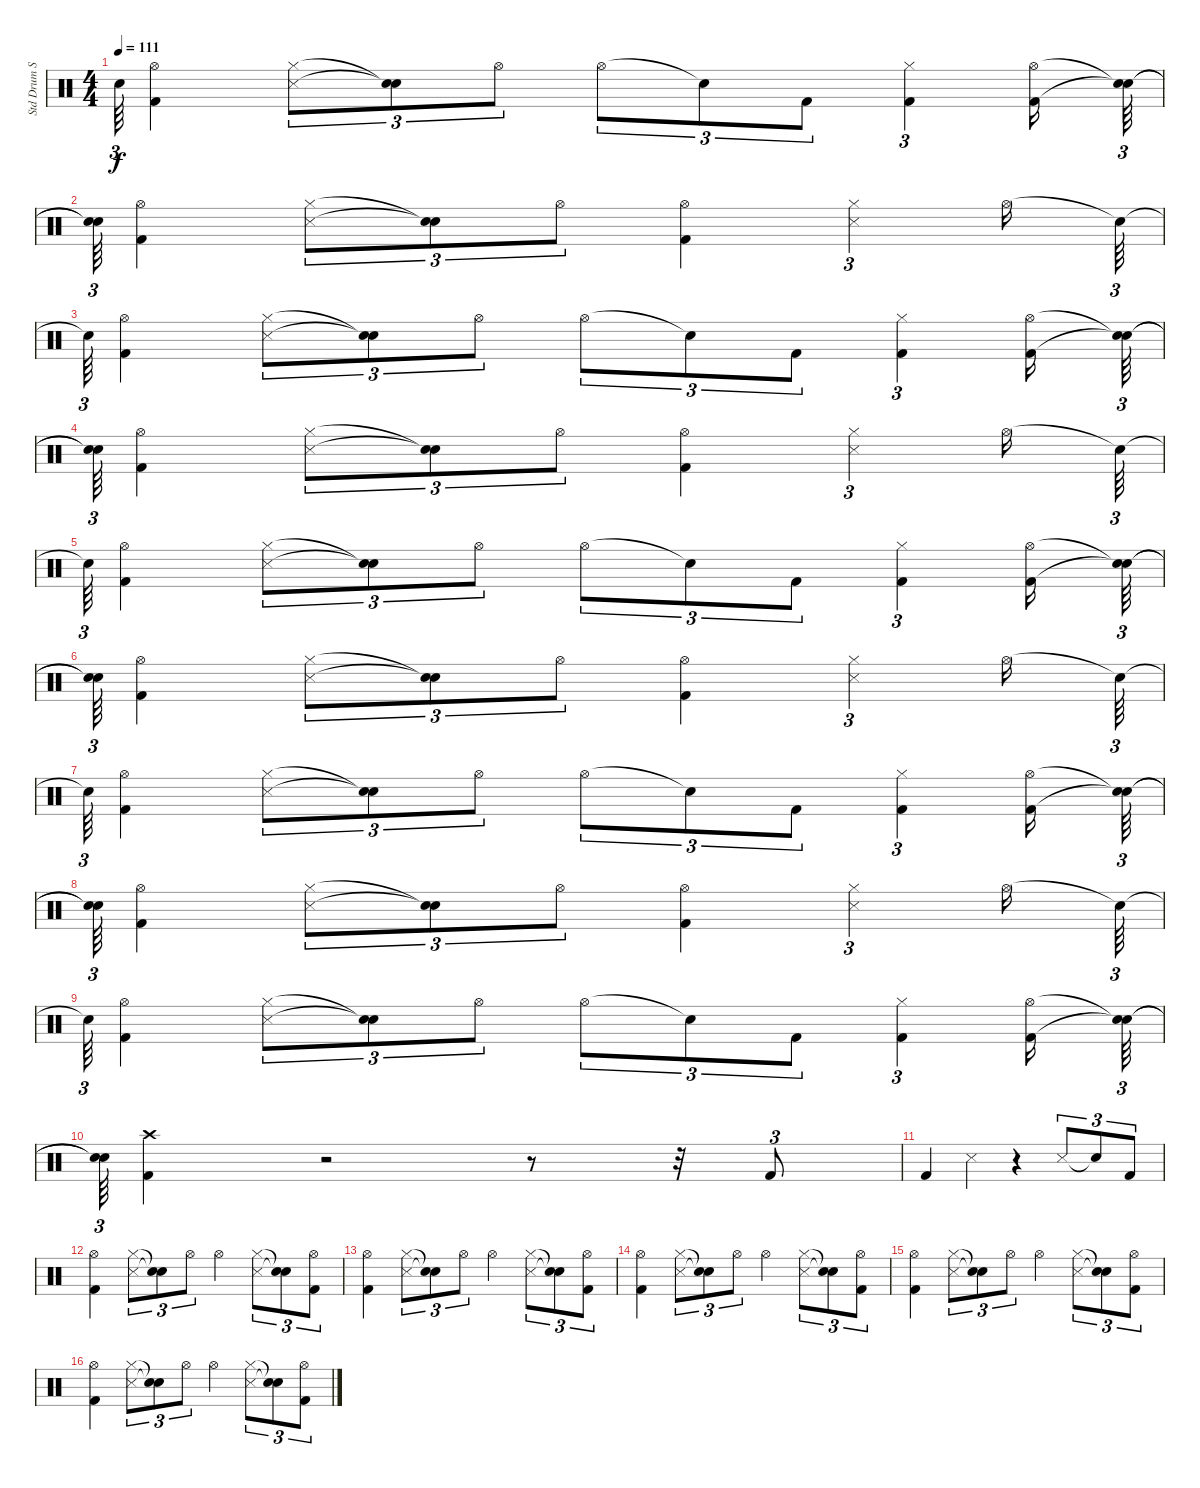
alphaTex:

\track ("Std Drum Set" "Std Drum S") {solo instrument percussion}
\staff {score}
\articulation defaults
\ts (4 4)
\tempo 111
\clef neutral
\ks c "Snare (hit)"{t}.64{tu (3 2) dy f}
("Kick (hit) 2" "Hi-Hat (open)").4 ("Snare (side stick) 3" "Hi-Hat (closed)").8{tu (3 2)} ("Snare (hit)"{t} "Snare (hit)"{t}).8{tu (3 2)} "Hi-Hat (open)".8{tu (3 2)} "Hi-Hat (open)".8{tu (3 2)} "Snare (hit)"{t}.8{tu (3 2)} "Kick (hit) 2".8{tu (3 2)} ("Kick (hit) 2" "Hi-Hat (closed)").4{tu (3 2)} ("Kick (hit) 2" "Hi-Hat (open)").16 ("Snare (hit)"{t} "Snare (hit)"{t}).64{tu (3 2)} |
("Snare (hit)"{t} "Snare (hit)"{t}).64{tu (3 2)} ("Kick (hit) 2" "Hi-Hat (open)").4 ("Snare (side stick) 3" "Hi-Hat (closed)").8{tu (3 2)} ("Snare (hit)"{t} "Snare (hit)"{t}).8{tu (3 2)} "Hi-Hat (open)".8{tu (3 2)} ("Kick (hit) 2" "Hi-Hat (open)").4 ("Snare (side stick) 3" "Hi-Hat (closed)").4{tu (3 2)} "Hi-Hat (open)".16 "Snare (hit)"{t}.64{tu (3 2)} |
"Snare (hit)"{t}.64{tu (3 2)} ("Kick (hit) 2" "Hi-Hat (open)").4 ("Snare (side stick) 3" "Hi-Hat (closed)").8{tu (3 2)} ("Snare (hit)"{t} "Snare (hit)"{t}).8{tu (3 2)} "Hi-Hat (open)".8{tu (3 2)} "Hi-Hat (open)".8{tu (3 2)} "Snare (hit)"{t}.8{tu (3 2)} "Kick (hit) 2".8{tu (3 2)} ("Kick (hit) 2" "Hi-Hat (closed)").4{tu (3 2)} ("Kick (hit) 2" "Hi-Hat (open)").16 ("Snare (hit)"{t} "Snare (hit)"{t}).64{tu (3 2)} |
("Snare (hit)"{t} "Snare (hit)"{t}).64{tu (3 2)} ("Kick (hit) 2" "Hi-Hat (open)").4 ("Snare (side stick) 3" "Hi-Hat (closed)").8{tu (3 2)} ("Snare (hit)"{t} "Snare (hit)"{t}).8{tu (3 2)} "Hi-Hat (open)".8{tu (3 2)} ("Kick (hit) 2" "Hi-Hat (open)").4 ("Snare (side stick) 3" "Hi-Hat (closed)").4{tu (3 2)} "Hi-Hat (open)".16 "Snare (hit)"{t}.64{tu (3 2)} |
"Snare (hit)"{t}.64{tu (3 2)} ("Kick (hit) 2" "Hi-Hat (open)").4 ("Snare (side stick) 3" "Hi-Hat (closed)").8{tu (3 2)} ("Snare (hit)"{t} "Snare (hit)"{t}).8{tu (3 2)} "Hi-Hat (open)".8{tu (3 2)} "Hi-Hat (open)".8{tu (3 2)} "Snare (hit)"{t}.8{tu (3 2)} "Kick (hit) 2".8{tu (3 2)} ("Kick (hit) 2" "Hi-Hat (closed)").4{tu (3 2)} ("Kick (hit) 2" "Hi-Hat (open)").16 ("Snare (hit)"{t} "Snare (hit)"{t}).64{tu (3 2)} |
("Snare (hit)"{t} "Snare (hit)"{t}).64{tu (3 2)} ("Kick (hit) 2" "Hi-Hat (open)").4 ("Snare (side stick) 3" "Hi-Hat (closed)").8{tu (3 2)} ("Snare (hit)"{t} "Snare (hit)"{t}).8{tu (3 2)} "Hi-Hat (open)".8{tu (3 2)} ("Kick (hit) 2" "Hi-Hat (open)").4 ("Snare (side stick) 3" "Hi-Hat (closed)").4{tu (3 2)} "Hi-Hat (open)".16 "Snare (hit)"{t}.64{tu (3 2)} |
"Snare (hit)"{t}.64{tu (3 2)} ("Kick (hit) 2" "Hi-Hat (open)").4 ("Snare (side stick) 3" "Hi-Hat (closed)").8{tu (3 2)} ("Snare (hit)"{t} "Snare (hit)"{t}).8{tu (3 2)} "Hi-Hat (open)".8{tu (3 2)} "Hi-Hat (open)".8{tu (3 2)} "Snare (hit)"{t}.8{tu (3 2)} "Kick (hit) 2".8{tu (3 2)} ("Kick (hit) 2" "Hi-Hat (closed)").4{tu (3 2)} ("Kick (hit) 2" "Hi-Hat (open)").16 ("Snare (hit)"{t} "Snare (hit)"{t}).64{tu (3 2)} |
("Snare (hit)"{t} "Snare (hit)"{t}).64{tu (3 2)} ("Kick (hit) 2" "Hi-Hat (open)").4 ("Snare (side stick) 3" "Hi-Hat (closed)").8{tu (3 2)} ("Snare (hit)"{t} "Snare (hit)"{t}).8{tu (3 2)} "Hi-Hat (open)".8{tu (3 2)} ("Kick (hit) 2" "Hi-Hat (open)").4 ("Snare (side stick) 3" "Hi-Hat (closed)").4{tu (3 2)} "Hi-Hat (open)".16 "Snare (hit)"{t}.64{tu (3 2)} |
"Snare (hit)"{t}.64{tu (3 2)} ("Kick (hit) 2" "Hi-Hat (open)").4 ("Snare (side stick) 3" "Hi-Hat (closed)").8{tu (3 2)} ("Snare (hit)"{t} "Snare (hit)"{t}).8{tu (3 2)} "Hi-Hat (open)".8{tu (3 2)} "Hi-Hat (open)".8{tu (3 2)} "Snare (hit)"{t}.8{tu (3 2)} "Kick (hit) 2".8{tu (3 2)} ("Kick (hit) 2" "Hi-Hat (closed)").4{tu (3 2)} ("Kick (hit) 2" "Hi-Hat (open)").16 ("Snare (hit)"{t} "Snare (hit)"{t}).64{tu (3 2)} |
("Snare (hit)"{t} "Snare (hit)"{t}).64{tu (3 2)} ("Kick (hit) 2" "Crash high (hit)").4 r.2 r.8 r.32 "Kick (hit) 2".8{tu (3 2)} |
"Kick (hit) 2".4 "Snare (side stick) 3".4 r.4 "Snare (side stick) 3".8{tu (3 2)} "Snare (hit)"{t}.8{tu (3 2)} "Kick (hit) 2".8{tu (3 2)} |
("Kick (hit) 2" "Hi-Hat (open)").4 ("Snare (side stick) 3" "Hi-Hat (closed)").8{tu (3 2)} ("Snare (hit)"{t} "Snare (hit)"{t}).8{tu (3 2)} "Hi-Hat (open)".8{tu (3 2)} "Hi-Hat (open)".4 ("Snare (side stick) 3" "Hi-Hat (closed)").8{tu (3 2)} ("Snare (hit)"{t} "Snare (hit)"{t}).8{tu (3 2)} ("Kick (hit) 2" "Hi-Hat (open)").8{tu (3 2)} |
("Kick (hit) 2" "Hi-Hat (open)").4 ("Snare (side stick) 3" "Hi-Hat (closed)").8{tu (3 2)} ("Snare (hit)"{t} "Snare (hit)"{t}).8{tu (3 2)} "Hi-Hat (open)".8{tu (3 2)} "Hi-Hat (open)".4 ("Snare (side stick) 3" "Hi-Hat (closed)").8{tu (3 2)} ("Snare (hit)"{t} "Snare (hit)"{t}).8{tu (3 2)} ("Kick (hit) 2" "Hi-Hat (open)").8{tu (3 2)} |
("Kick (hit) 2" "Hi-Hat (open)").4 ("Snare (side stick) 3" "Hi-Hat (closed)").8{tu (3 2)} ("Snare (hit)"{t} "Snare (hit)"{t}).8{tu (3 2)} "Hi-Hat (open)".8{tu (3 2)} "Hi-Hat (open)".4 ("Snare (side stick) 3" "Hi-Hat (closed)").8{tu (3 2)} ("Snare (hit)"{t} "Snare (hit)"{t}).8{tu (3 2)} ("Kick (hit) 2" "Hi-Hat (open)").8{tu (3 2)} |
("Kick (hit) 2" "Hi-Hat (open)").4 ("Snare (side stick) 3" "Hi-Hat (closed)").8{tu (3 2)} ("Snare (hit)"{t} "Snare (hit)"{t}).8{tu (3 2)} "Hi-Hat (open)".8{tu (3 2)} "Hi-Hat (open)".4 ("Snare (side stick) 3" "Hi-Hat (closed)").8{tu (3 2)} ("Snare (hit)"{t} "Snare (hit)"{t}).8{tu (3 2)} ("Kick (hit) 2" "Hi-Hat (open)").8{tu (3 2)} |
("Kick (hit) 2" "Hi-Hat (open)").4 ("Snare (side stick) 3" "Hi-Hat (closed)").8{tu (3 2)} ("Snare (hit)"{t} "Snare (hit)"{t}).8{tu (3 2)} "Hi-Hat (open)".8{tu (3 2)} "Hi-Hat (open)".4 ("Snare (side stick) 3" "Hi-Hat (closed)").8{tu (3 2)} ("Snare (hit)"{t} "Snare (hit)"{t}).8{tu (3 2)} ("Kick (hit) 2" "Hi-Hat (open)").8{tu (3 2)}
